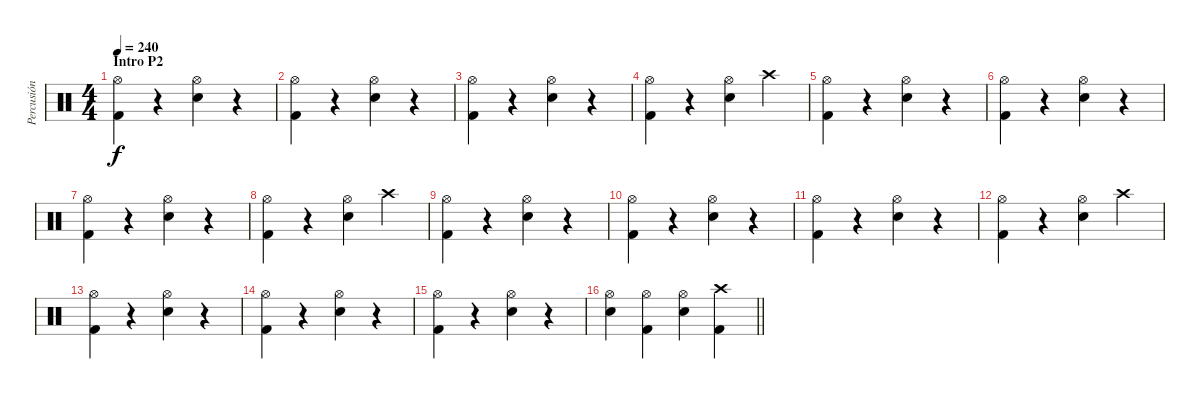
\track ("Percusión" "Percusión") {instrument percussion}
\staff {score}
\articulation defaults
\ts (4 4)
\section ("" "Intro P2")
\tempo 240
\clef neutral
\ks c
("Hi-Hat (open)" "Kick (hit) 2").4{dy f} r.4 ("Hi-Hat (open)" "Electric Snare (hit)").4 r.4 |
("Hi-Hat (open)" "Kick (hit) 2").4 r.4 ("Hi-Hat (open)" "Electric Snare (hit)").4 r.4 |
("Hi-Hat (open)" "Kick (hit) 2").4 r.4 ("Hi-Hat (open)" "Electric Snare (hit)").4 r.4 |
("Hi-Hat (open)" "Kick (hit) 2").4 r.4 ("Hi-Hat (open)" "Electric Snare (hit)").4 "Crash high (hit)".4 |
("Hi-Hat (open)" "Kick (hit) 2").4 r.4 ("Hi-Hat (open)" "Electric Snare (hit)").4 r.4 |
("Hi-Hat (open)" "Kick (hit) 2").4 r.4 ("Hi-Hat (open)" "Electric Snare (hit)").4 r.4 |
("Hi-Hat (open)" "Kick (hit) 2").4 r.4 ("Hi-Hat (open)" "Electric Snare (hit)").4 r.4 |
("Hi-Hat (open)" "Kick (hit) 2").4 r.4 ("Hi-Hat (open)" "Electric Snare (hit)").4 "Crash high (hit)".4 |
("Hi-Hat (open)" "Kick (hit) 2").4 r.4 ("Hi-Hat (open)" "Electric Snare (hit)").4 r.4 |
("Hi-Hat (open)" "Kick (hit) 2").4 r.4 ("Hi-Hat (open)" "Electric Snare (hit)").4 r.4 |
("Hi-Hat (open)" "Kick (hit) 2").4 r.4 ("Hi-Hat (open)" "Electric Snare (hit)").4 r.4 |
("Hi-Hat (open)" "Kick (hit) 2").4 r.4 ("Hi-Hat (open)" "Electric Snare (hit)").4 "Crash high (hit)".4 |
("Hi-Hat (open)" "Kick (hit) 2").4 r.4 ("Hi-Hat (open)" "Electric Snare (hit)").4 r.4 |
("Hi-Hat (open)" "Kick (hit) 2").4 r.4 ("Hi-Hat (open)" "Electric Snare (hit)").4 r.4 |
("Hi-Hat (open)" "Kick (hit) 2").4 r.4 ("Hi-Hat (open)" "Electric Snare (hit)").4 r.4 |
\barLineRight lightlight
("Hi-Hat (open)" "Electric Snare (hit)").4 ("Hi-Hat (open)" "Kick (hit) 2").4 ("Hi-Hat (open)" "Electric Snare (hit)").4 ("Crash high (hit)" "Kick (hit) 2").4
